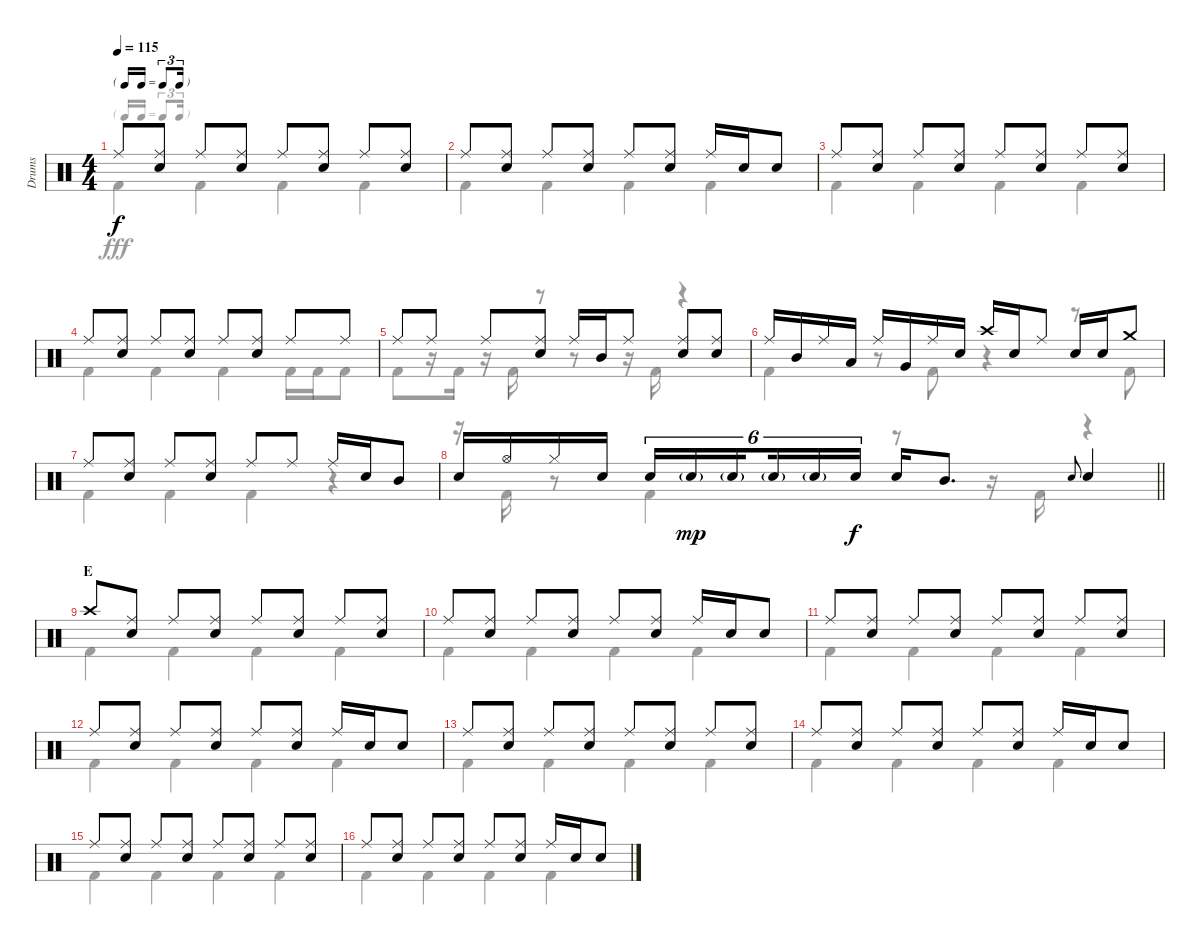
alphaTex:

\track ("Drums" "Drums") {instrument percussion}
\staff {score}
\articulation defaults
\voice
\ts (4 4)
\tf triplet16th
\tempo 115
\clef neutral
\ks c "Ride (middle)".8{dy f}
("Ride (middle)" "Snare (hit) 2").8 "Ride (middle)".8 ("Ride (middle)" "Snare (hit) 2").8 "Ride (middle)".8 ("Ride (middle)" "Snare (hit) 2").8 "Ride (middle)".8 ("Ride (middle)" "Snare (hit) 2").8 |
"Ride (middle)".8 ("Ride (middle)" "Snare (hit) 2").8 "Ride (middle)".8 ("Ride (middle)" "Snare (hit) 2").8 "Ride (middle)".8 ("Ride (middle)" "Snare (hit) 2").8 "Ride (middle)".16 "Snare (hit) 2".16 "Snare (hit) 2".8 |
"Ride (middle)".8 ("Ride (middle)" "Snare (hit) 2").8 "Ride (middle)".8 ("Ride (middle)" "Snare (hit) 2").8 "Ride (middle)".8 ("Ride (middle)" "Snare (hit) 2").8 "Ride (middle)".8 ("Ride (middle)" "Snare (hit) 2").8 |
"Ride (middle)".8 ("Ride (middle)" "Snare (hit) 2").8 "Ride (middle)".8 ("Ride (middle)" "Snare (hit) 2").8 "Ride (middle)".8 ("Ride (middle)" "Snare (hit) 2").8 "Ride (middle)".8 "Ride (middle)".8 |
"Ride (middle)".8 "Ride (middle)".8 "Ride (middle)".8 ("Ride (middle)" "Snare (hit) 2").8 "Ride (middle)".16 "Mid Tom (hit)".16 "Ride (middle)".8 ("Ride (middle)" "Snare (hit) 2").8 ("Ride (middle)" "Snare (hit) 2").8 |
"Ride (middle)".16 "Mid Tom (hit)".16 "Ride (middle)".16 "Low Tom (hit)".16 "Ride (middle)".16 "Very Low Tom (hit)".16 "Ride (middle)".16 "Snare (hit) 2".16 "Crash high (hit)".16 "Snare (hit) 2".16 "Ride (middle)".8 "Snare (hit) 2".16 "Snare (hit) 2".16 "Crash medium (hit)".8 |
"Ride (middle)".8 ("Ride (middle)" "Snare (hit) 2").8 "Ride (middle)".8 ("Ride (middle)" "Snare (hit) 2").8 "Ride (middle)".8 "Ride (middle)".8 "Ride (middle)".16 "Snare (hit) 2".16 "Mid Tom (hit)".8 |
\barLineRight lightlight "Snare (hit) 2".16 "Hi-Hat (open)".16 "Hi-Hat (closed)".16 "Snare (hit) 2".16 "Snare (hit) 2".16{tu (6 4)} "Snare (hit) 2"{g}.16{tu (6 4) dy mp} "Snare (hit) 2"{g}.16{tu (6 4) beam splitsecondary} "Snare (hit) 2"{g}.16{tu (6 4)} "Snare (hit) 2"{g}.16{tu (6 4)} "Snare (hit) 2".16{tu (6 4) dy f} "Snare (hit) 2".16 "Mid Tom (hit)".8{d} "Snare (hit) 2".8{gr onbeat} "Snare (hit) 2".4
|
\section ("" "E")
"Crash high (hit)".8 ("Ride (middle)" "Snare (hit) 2").8 "Ride (middle)".8 ("Ride (middle)" "Snare (hit) 2").8 "Ride (middle)".8 ("Ride (middle)" "Snare (hit) 2").8 "Ride (middle)".8 ("Ride (middle)" "Snare (hit) 2").8 |
"Ride (middle)".8 ("Ride (middle)" "Snare (hit) 2").8 "Ride (middle)".8 ("Ride (middle)" "Snare (hit) 2").8 "Ride (middle)".8 ("Ride (middle)" "Snare (hit) 2").8 "Ride (middle)".16 "Snare (hit) 2".16 "Snare (hit) 2".8 |
"Ride (middle)".8 ("Ride (middle)" "Snare (hit) 2").8 "Ride (middle)".8 ("Ride (middle)" "Snare (hit) 2").8 "Ride (middle)".8 ("Ride (middle)" "Snare (hit) 2").8 "Ride (middle)".8 ("Ride (middle)" "Snare (hit) 2").8 |
"Ride (middle)".8 ("Ride (middle)" "Snare (hit) 2").8 "Ride (middle)".8 ("Ride (middle)" "Snare (hit) 2").8 "Ride (middle)".8 ("Ride (middle)" "Snare (hit) 2").8 "Ride (middle)".16 "Snare (hit) 2".16 "Snare (hit) 2".8 |
"Ride (middle)".8 ("Ride (middle)" "Snare (hit) 2").8 "Ride (middle)".8 ("Ride (middle)" "Snare (hit) 2").8 "Ride (middle)".8 ("Ride (middle)" "Snare (hit) 2").8 "Ride (middle)".8 ("Ride (middle)" "Snare (hit) 2").8 |
"Ride (middle)".8 ("Ride (middle)" "Snare (hit) 2").8 "Ride (middle)".8 ("Ride (middle)" "Snare (hit) 2").8 "Ride (middle)".8 ("Ride (middle)" "Snare (hit) 2").8 "Ride (middle)".16 "Snare (hit) 2".16 "Snare (hit) 2".8 |
"Ride (middle)".8 ("Ride (middle)" "Snare (hit) 2").8 "Ride (middle)".8 ("Ride (middle)" "Snare (hit) 2").8 "Ride (middle)".8 ("Ride (middle)" "Snare (hit) 2").8 "Ride (middle)".8 ("Ride (middle)" "Snare (hit) 2").8 |
"Ride (middle)".8 ("Ride (middle)" "Snare (hit) 2").8 "Ride (middle)".8 ("Ride (middle)" "Snare (hit) 2").8 "Ride (middle)".8 ("Ride (middle)" "Snare (hit) 2").8 "Ride (middle)".16 "Snare (hit) 2".16 "Snare (hit) 2".8
\voice
\clef neutral
\ottava regular
\simile none
\ks c "Kick (hit) 2".4{dy fff} "Kick (hit) 2".4 "Kick (hit) 2".4 "Kick (hit) 2".4
|
"Kick (hit) 2".4 "Kick (hit) 2".4 "Kick (hit) 2".4 "Kick (hit) 2".4 |
"Kick (hit) 2".4 "Kick (hit) 2".4 "Kick (hit) 2".4 "Kick (hit) 2".4 |
"Kick (hit) 2".4 "Kick (hit) 2".4 "Kick (hit) 2".4 "Kick (hit) 2".16 "Kick (hit) 2".16 "Kick (hit) 2".8 |
"Kick (hit) 2".8 r.16 "Kick (hit) 2".16 r.16 "Kick (hit) 2".16 r.8 r.8 r.16 "Kick (hit) 2".16 r.4 |
"Kick (hit) 2".4 r.8 "Kick (hit) 2".8 r.4 r.8 "Kick (hit) 2".8 |
"Kick (hit) 2".4 "Kick (hit) 2".4 "Kick (hit) 2".4 r.4 |
\barLineRight lightlight
r.16 "Kick (hit) 2".16 r.8 "Kick (hit) 2".4 r.8 r.16 "Kick (hit) 2".16 r.4 |
"Kick (hit) 2".4 "Kick (hit) 2".4 "Kick (hit) 2".4 "Kick (hit) 2".4 |
"Kick (hit) 2".4 "Kick (hit) 2".4 "Kick (hit) 2".4 "Kick (hit) 2".4 |
"Kick (hit) 2".4 "Kick (hit) 2".4 "Kick (hit) 2".4 "Kick (hit) 2".4 |
"Kick (hit) 2".4 "Kick (hit) 2".4 "Kick (hit) 2".4 "Kick (hit) 2".4 |
"Kick (hit) 2".4 "Kick (hit) 2".4 "Kick (hit) 2".4 "Kick (hit) 2".4 |
"Kick (hit) 2".4 "Kick (hit) 2".4 "Kick (hit) 2".4 "Kick (hit) 2".4 |
"Kick (hit) 2".4 "Kick (hit) 2".4 "Kick (hit) 2".4 "Kick (hit) 2".4 |
"Kick (hit) 2".4 "Kick (hit) 2".4 "Kick (hit) 2".4 "Kick (hit) 2".4
